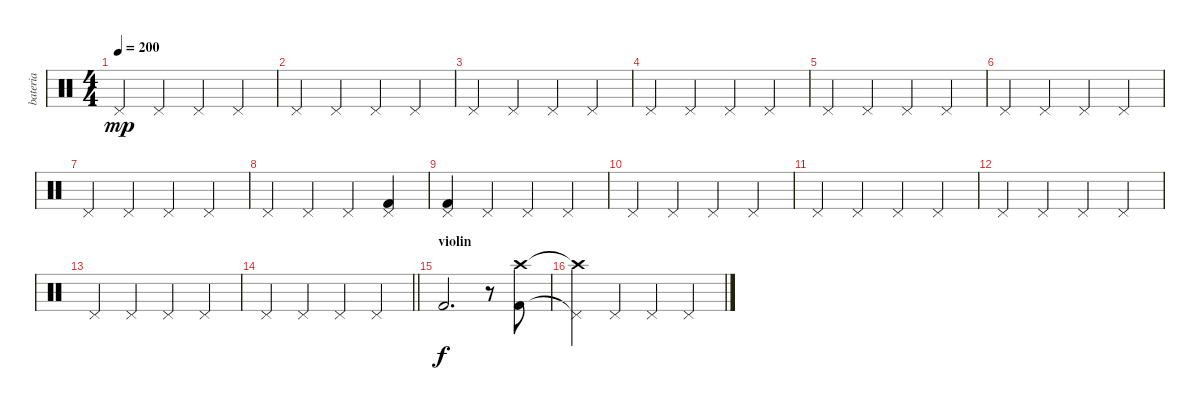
\track ("bateria" "bateria") {instrument percussion}
\staff {score}
\articulation defaults
\ts (4 4)
\tempo 200
\clef neutral
\ks c "Pedal Hi-Hat (hit)".4{dy mp} "Pedal Hi-Hat (hit)".4 "Pedal Hi-Hat (hit)".4 "Pedal Hi-Hat (hit)".4
|
"Pedal Hi-Hat (hit)".4 "Pedal Hi-Hat (hit)".4 "Pedal Hi-Hat (hit)".4 "Pedal Hi-Hat (hit)".4 |
"Pedal Hi-Hat (hit)".4 "Pedal Hi-Hat (hit)".4 "Pedal Hi-Hat (hit)".4 "Pedal Hi-Hat (hit)".4 |
"Pedal Hi-Hat (hit)".4 "Pedal Hi-Hat (hit)".4 "Pedal Hi-Hat (hit)".4 "Pedal Hi-Hat (hit)".4 |
"Pedal Hi-Hat (hit)".4 "Pedal Hi-Hat (hit)".4 "Pedal Hi-Hat (hit)".4 "Pedal Hi-Hat (hit)".4 |
"Pedal Hi-Hat (hit)".4 "Pedal Hi-Hat (hit)".4 "Pedal Hi-Hat (hit)".4 "Pedal Hi-Hat (hit)".4 |
"Pedal Hi-Hat (hit)".4 "Pedal Hi-Hat (hit)".4 "Pedal Hi-Hat (hit)".4 "Pedal Hi-Hat (hit)".4 |
"Pedal Hi-Hat (hit)".4 "Pedal Hi-Hat (hit)".4 "Pedal Hi-Hat (hit)".4 ("Pedal Hi-Hat (hit)" "Kick (hit) 2").4 |
("Pedal Hi-Hat (hit)" "Kick (hit) 2").4 "Pedal Hi-Hat (hit)".4 "Pedal Hi-Hat (hit)".4 "Pedal Hi-Hat (hit)".4 |
"Pedal Hi-Hat (hit)".4 "Pedal Hi-Hat (hit)".4 "Pedal Hi-Hat (hit)".4 "Pedal Hi-Hat (hit)".4 |
"Pedal Hi-Hat (hit)".4 "Pedal Hi-Hat (hit)".4 "Pedal Hi-Hat (hit)".4 "Pedal Hi-Hat (hit)".4 |
"Pedal Hi-Hat (hit)".4 "Pedal Hi-Hat (hit)".4 "Pedal Hi-Hat (hit)".4 "Pedal Hi-Hat (hit)".4 |
"Pedal Hi-Hat (hit)".4 "Pedal Hi-Hat (hit)".4 "Pedal Hi-Hat (hit)".4 "Pedal Hi-Hat (hit)".4 |
\barLineRight lightlight "Pedal Hi-Hat (hit)".4 "Pedal Hi-Hat (hit)".4 "Pedal Hi-Hat (hit)".4 "Pedal Hi-Hat (hit)".4
|
\section ("" "violin")
"Kick (hit) 2".2{d dy f} r.8 ("Kick (hit) 2" "Crash high (hit)").8 |
("Pedal Hi-Hat (hit)"{t} "Crash high (hit)"{t}).4 "Pedal Hi-Hat (hit)".4 "Pedal Hi-Hat (hit)".4 "Pedal Hi-Hat (hit)".4
